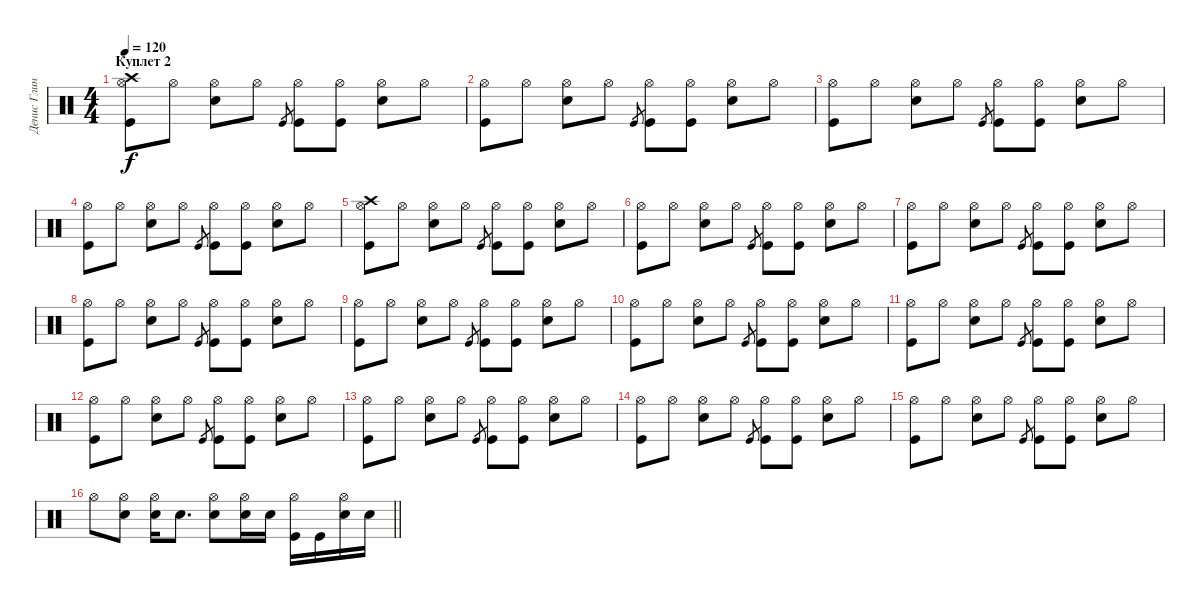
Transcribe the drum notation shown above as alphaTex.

\track ("Денис Глинин" "Денис Глин") {instrument percussion}
\staff {score}
\articulation defaults
\ts (4 4)
\section ("" "Куплет 2")
\tempo 120
\clef neutral
\ks c
("Hi-Hat (open)" "Crash high (hit)" "Kick (hit)").8{dy f} "Hi-Hat (open)".8 ("Hi-Hat (open)" "Snare (hit) 2").8 "Hi-Hat (open)".8 "Kick (hit)".8{gr} ("Hi-Hat (open)" "Kick (hit)").8 ("Hi-Hat (open)" "Kick (hit)").8 ("Hi-Hat (open)" "Snare (hit) 2").8 "Hi-Hat (open)".8 |
("Hi-Hat (open)" "Kick (hit)").8 "Hi-Hat (open)".8 ("Hi-Hat (open)" "Snare (hit) 2").8 "Hi-Hat (open)".8 "Kick (hit)".8{gr} ("Hi-Hat (open)" "Kick (hit)").8 ("Hi-Hat (open)" "Kick (hit)").8 ("Hi-Hat (open)" "Snare (hit) 2").8 "Hi-Hat (open)".8 |
("Hi-Hat (open)" "Kick (hit)").8 "Hi-Hat (open)".8 ("Hi-Hat (open)" "Snare (hit) 2").8 "Hi-Hat (open)".8 "Kick (hit)".8{gr} ("Hi-Hat (open)" "Kick (hit)").8 ("Hi-Hat (open)" "Kick (hit)").8 ("Hi-Hat (open)" "Snare (hit) 2").8 "Hi-Hat (open)".8 |
("Hi-Hat (open)" "Kick (hit)").8 "Hi-Hat (open)".8 ("Hi-Hat (open)" "Snare (hit) 2").8 "Hi-Hat (open)".8 "Kick (hit)".8{gr} ("Hi-Hat (open)" "Kick (hit)").8 ("Hi-Hat (open)" "Kick (hit)").8 ("Hi-Hat (open)" "Snare (hit) 2").8 "Hi-Hat (open)".8 |
("Hi-Hat (open)" "Crash high (hit)" "Kick (hit)").8 "Hi-Hat (open)".8 ("Hi-Hat (open)" "Snare (hit) 2").8 "Hi-Hat (open)".8 "Kick (hit)".8{gr} ("Hi-Hat (open)" "Kick (hit)").8 ("Hi-Hat (open)" "Kick (hit)").8 ("Hi-Hat (open)" "Snare (hit) 2").8 "Hi-Hat (open)".8 |
("Hi-Hat (open)" "Kick (hit)").8 "Hi-Hat (open)".8 ("Hi-Hat (open)" "Snare (hit) 2").8 "Hi-Hat (open)".8 "Kick (hit)".8{gr} ("Hi-Hat (open)" "Kick (hit)").8 ("Hi-Hat (open)" "Kick (hit)").8 ("Hi-Hat (open)" "Snare (hit) 2").8 "Hi-Hat (open)".8 |
("Hi-Hat (open)" "Kick (hit)").8 "Hi-Hat (open)".8 ("Hi-Hat (open)" "Snare (hit) 2").8 "Hi-Hat (open)".8 "Kick (hit)".8{gr} ("Hi-Hat (open)" "Kick (hit)").8 ("Hi-Hat (open)" "Kick (hit)").8 ("Hi-Hat (open)" "Snare (hit) 2").8 "Hi-Hat (open)".8 |
("Hi-Hat (open)" "Kick (hit)").8 "Hi-Hat (open)".8 ("Hi-Hat (open)" "Snare (hit) 2").8 "Hi-Hat (open)".8 "Kick (hit)".8{gr} ("Hi-Hat (open)" "Kick (hit)").8 ("Hi-Hat (open)" "Kick (hit)").8 ("Hi-Hat (open)" "Snare (hit) 2").8 "Hi-Hat (open)".8 |
("Hi-Hat (open)" "Kick (hit)").8 "Hi-Hat (open)".8 ("Hi-Hat (open)" "Snare (hit) 2").8 "Hi-Hat (open)".8 "Kick (hit)".8{gr} ("Hi-Hat (open)" "Kick (hit)").8 ("Hi-Hat (open)" "Kick (hit)").8 ("Hi-Hat (open)" "Snare (hit) 2").8 "Hi-Hat (open)".8 |
("Hi-Hat (open)" "Kick (hit)").8 "Hi-Hat (open)".8 ("Hi-Hat (open)" "Snare (hit) 2").8 "Hi-Hat (open)".8 "Kick (hit)".8{gr} ("Hi-Hat (open)" "Kick (hit)").8 ("Hi-Hat (open)" "Kick (hit)").8 ("Hi-Hat (open)" "Snare (hit) 2").8 "Hi-Hat (open)".8 |
("Hi-Hat (open)" "Kick (hit)").8 "Hi-Hat (open)".8 ("Hi-Hat (open)" "Snare (hit) 2").8 "Hi-Hat (open)".8 "Kick (hit)".8{gr} ("Hi-Hat (open)" "Kick (hit)").8 ("Hi-Hat (open)" "Kick (hit)").8 ("Hi-Hat (open)" "Snare (hit) 2").8 "Hi-Hat (open)".8 |
("Hi-Hat (open)" "Kick (hit)").8 "Hi-Hat (open)".8 ("Hi-Hat (open)" "Snare (hit) 2").8 "Hi-Hat (open)".8 "Kick (hit)".8{gr} ("Hi-Hat (open)" "Kick (hit)").8 ("Hi-Hat (open)" "Kick (hit)").8 ("Hi-Hat (open)" "Snare (hit) 2").8 "Hi-Hat (open)".8 |
("Hi-Hat (open)" "Kick (hit)").8 "Hi-Hat (open)".8 ("Hi-Hat (open)" "Snare (hit) 2").8 "Hi-Hat (open)".8 "Kick (hit)".8{gr} ("Hi-Hat (open)" "Kick (hit)").8 ("Hi-Hat (open)" "Kick (hit)").8 ("Hi-Hat (open)" "Snare (hit) 2").8 "Hi-Hat (open)".8 |
("Hi-Hat (open)" "Kick (hit)").8 "Hi-Hat (open)".8 ("Hi-Hat (open)" "Snare (hit) 2").8 "Hi-Hat (open)".8 "Kick (hit)".8{gr} ("Hi-Hat (open)" "Kick (hit)").8 ("Hi-Hat (open)" "Kick (hit)").8 ("Hi-Hat (open)" "Snare (hit) 2").8 "Hi-Hat (open)".8 |
("Hi-Hat (open)" "Kick (hit)").8 "Hi-Hat (open)".8 ("Hi-Hat (open)" "Snare (hit) 2").8 "Hi-Hat (open)".8 "Kick (hit)".8{gr} ("Hi-Hat (open)" "Kick (hit)").8 ("Hi-Hat (open)" "Kick (hit)").8 ("Hi-Hat (open)" "Snare (hit) 2").8 "Hi-Hat (open)".8 |
\barLineRight lightlight "Hi-Hat (open)".8
("Hi-Hat (open)" "Snare (hit) 2").8 ("Hi-Hat (open)" "Snare (hit) 2").16 "Snare (hit) 2".8{d} ("Hi-Hat (open)" "Snare (hit) 2").8 ("Hi-Hat (open)" "Snare (hit) 2").16 "Snare (hit) 2".16 ("Hi-Hat (open)" "Kick (hit)").16 "Kick (hit)".16 ("Hi-Hat (open)" "Snare (hit) 2").16 "Snare (hit) 2".16
